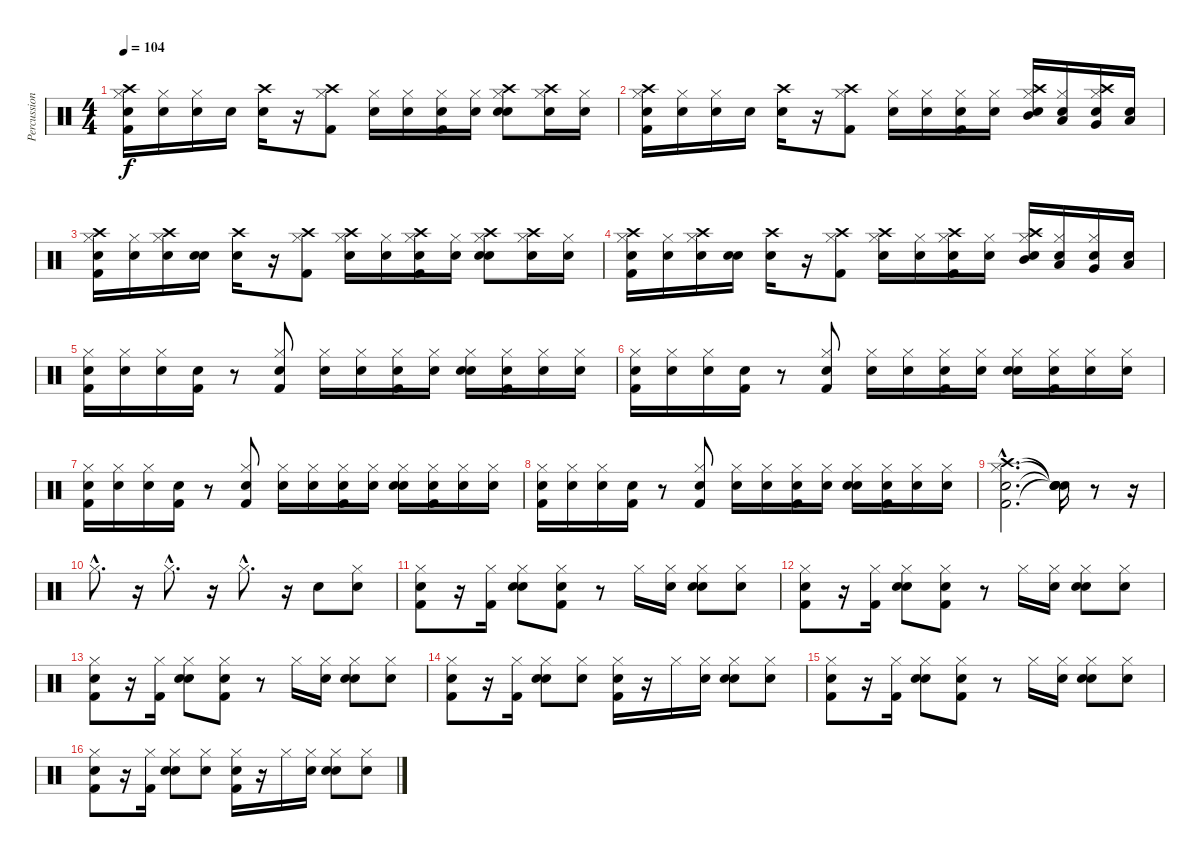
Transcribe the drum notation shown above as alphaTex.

\track ("Percussion" "Percussion") {instrument percussion}
\staff {score}
\articulation defaults
\ts (4 4)
\tempo 104
\clef neutral
\ks c
("Snare (hit)" "Kick (hit) 2" "Hi-Hat (closed)" "Crash high (hit)").16{dy f} ("Snare (hit)" "Hi-Hat (closed)").16 ("Snare (hit)" "Hi-Hat (closed)").16 "Electric Snare (hit)".16 ("Snare (hit)" "Crash high (hit)").16 r.16 ("Hi-Hat (closed)" "Kick (hit) 2" "Crash high (hit)").8 ("Snare (hit)" "Hi-Hat (closed)").16 ("Snare (hit)" "Hi-Hat (closed)").16 ("Snare (hit)" "Hi-Hat (closed)" "Kick (hit) 2").16 ("Snare (hit)" "Hi-Hat (closed)").16 ("Snare (hit)" "Hi-Hat (closed)" "Electric Snare (hit)" "Crash high (hit)").8 ("Snare (hit)" "Hi-Hat (closed)" "Crash high (hit)").16 ("Snare (hit)" "Hi-Hat (closed)").16 |
("Snare (hit)" "Hi-Hat (closed)" "Kick (hit) 2" "Crash high (hit)").16 ("Snare (hit)" "Hi-Hat (closed)").16 ("Snare (hit)" "Hi-Hat (closed)").16 "Electric Snare (hit)".16 ("Snare (hit)" "Crash high (hit)").16 r.16 ("Kick (hit) 2" "Hi-Hat (closed)" "Crash high (hit)").8 ("Snare (hit)" "Hi-Hat (closed)").16 ("Snare (hit)" "Hi-Hat (closed)").16 ("Snare (hit)" "Kick (hit) 2" "Hi-Hat (closed)").16 ("Snare (hit)" "Hi-Hat (closed)").16 ("Snare (hit)" "Mid Tom (hit)" "Hi-Hat (closed)" "Crash high (hit)").16 ("Snare (hit)" "Hi-Hat (closed)" "Low Tom (hit)").16 ("Snare (hit)" "Hi-Hat (closed)" "Very Low Tom (hit)" "Crash high (hit)").16 ("Snare (hit)" "Low Floor Tom (hit)").16 |
("Snare (hit)" "Hi-Hat (closed)" "Kick (hit) 2" "Crash high (hit)").16 ("Snare (hit)" "Hi-Hat (closed)").16 ("Snare (hit)" "Hi-Hat (closed)" "Crash high (hit)").16 ("Snare (hit)" "Electric Snare (hit)").16 ("Snare (hit)" "Crash high (hit)").16 r.16 ("Kick (hit) 2" "Hi-Hat (closed)" "Crash high (hit)").8 ("Snare (hit)" "Hi-Hat (closed)" "Crash high (hit)").16 ("Snare (hit)" "Hi-Hat (closed)").16 ("Snare (hit)" "Kick (hit) 2" "Hi-Hat (closed)" "Crash high (hit)").16 ("Snare (hit)" "Hi-Hat (closed)").16 ("Snare (hit)" "Electric Snare (hit)" "Hi-Hat (closed)" "Crash high (hit)").8 ("Snare (hit)" "Hi-Hat (closed)" "Crash high (hit)").16 ("Snare (hit)" "Hi-Hat (closed)").16 |
("Snare (hit)" "Hi-Hat (closed)" "Kick (hit) 2" "Crash high (hit)").16 ("Snare (hit)" "Hi-Hat (closed)").16 ("Snare (hit)" "Crash high (hit)" "Hi-Hat (closed)").16 ("Snare (hit)" "Electric Snare (hit)").16 ("Snare (hit)" "Crash high (hit)").16 r.16 ("Kick (hit) 2" "Hi-Hat (closed)" "Crash high (hit)").8 ("Snare (hit)" "Hi-Hat (closed)" "Crash high (hit)").16 ("Snare (hit)" "Hi-Hat (closed)").16 ("Snare (hit)" "Kick (hit) 2" "Hi-Hat (closed)" "Crash high (hit)").16 ("Snare (hit)" "Hi-Hat (closed)").16 ("Snare (hit)" "Crash high (hit)" "Hi-Hat (closed)" "Mid Tom (hit)").16 ("Snare (hit)" "Low Tom (hit)" "Hi-Hat (closed)").16 ("Snare (hit)" "Very Low Tom (hit)" "Hi-Hat (closed)").16 ("Snare (hit)" "Low Floor Tom (hit)").16 |
("Snare (hit)" "Hi-Hat (closed)" "Kick (hit) 2").16 ("Snare (hit)" "Hi-Hat (closed)").16 ("Snare (hit)" "Hi-Hat (closed)").16 ("Electric Snare (hit)" "Kick (hit) 2").16 r.8 ("Hi-Hat (closed)" "Kick (hit) 2" "Electric Snare (hit)").8 ("Snare (hit)" "Hi-Hat (closed)").16 ("Snare (hit)" "Hi-Hat (closed)").16 ("Snare (hit)" "Kick (hit) 2" "Hi-Hat (closed)").16 ("Snare (hit)" "Hi-Hat (closed)").16 ("Snare (hit)" "Hi-Hat (closed)" "Electric Snare (hit)").16 ("Snare (hit)" "Kick (hit) 2" "Hi-Hat (closed)").16 ("Snare (hit)" "Hi-Hat (closed)").16 ("Snare (hit)" "Hi-Hat (closed)").16 |
("Snare (hit)" "Kick (hit) 2" "Hi-Hat (closed)").16 ("Snare (hit)" "Hi-Hat (closed)").16 ("Snare (hit)" "Hi-Hat (closed)").16 ("Electric Snare (hit)" "Kick (hit) 2").16 r.8 ("Hi-Hat (closed)" "Electric Snare (hit)" "Kick (hit) 2").8 ("Snare (hit)" "Hi-Hat (closed)").16 ("Snare (hit)" "Hi-Hat (closed)").16 ("Snare (hit)" "Hi-Hat (closed)" "Kick (hit) 2").16 ("Snare (hit)" "Hi-Hat (closed)").16 ("Snare (hit)" "Hi-Hat (closed)" "Electric Snare (hit)").16 ("Snare (hit)" "Hi-Hat (closed)" "Kick (hit) 2").16 ("Snare (hit)" "Hi-Hat (closed)").16 ("Snare (hit)" "Hi-Hat (closed)").16 |
("Snare (hit)" "Kick (hit) 2" "Hi-Hat (closed)").16 ("Snare (hit)" "Hi-Hat (closed)").16 ("Snare (hit)" "Hi-Hat (closed)").16 ("Electric Snare (hit)" "Kick (hit) 2").16 r.8 ("Hi-Hat (closed)" "Electric Snare (hit)" "Kick (hit) 2").8 ("Snare (hit)" "Hi-Hat (closed)").16 ("Snare (hit)" "Hi-Hat (closed)").16 ("Snare (hit)" "Hi-Hat (closed)" "Kick (hit) 2").16 ("Snare (hit)" "Hi-Hat (closed)").16 ("Snare (hit)" "Hi-Hat (closed)" "Electric Snare (hit)").16 ("Snare (hit)" "Hi-Hat (closed)" "Kick (hit) 2").16 ("Snare (hit)" "Hi-Hat (closed)").16 ("Snare (hit)" "Hi-Hat (closed)").16 |
("Snare (hit)" "Kick (hit) 2" "Hi-Hat (closed)").16 ("Snare (hit)" "Hi-Hat (closed)").16 ("Snare (hit)" "Hi-Hat (closed)").16 ("Electric Snare (hit)" "Kick (hit) 2").16 r.8 ("Hi-Hat (closed)" "Electric Snare (hit)" "Kick (hit) 2").8 ("Snare (hit)" "Hi-Hat (closed)").16 ("Snare (hit)" "Hi-Hat (closed)").16 ("Snare (hit)" "Hi-Hat (closed)" "Kick (hit) 2").16 ("Snare (hit)" "Hi-Hat (closed)").16 ("Snare (hit)" "Hi-Hat (closed)" "Electric Snare (hit)").16 ("Snare (hit)" "Hi-Hat (closed)" "Kick (hit) 2").16 ("Snare (hit)" "Hi-Hat (closed)").16 ("Snare (hit)" "Hi-Hat (closed)").16 |
("Snare (hit)"{hac} "Hi-Hat (closed)"{hac} "Kick (hit) 2"{hac} "Crash high (hit)"{hac}).2{d} ("Snare (hit)"{t} "Snare (hit)"{t} "Snare (hit)"{t} "Snare (hit)"{t}).16 r.8 r.16 |
"Hi-Hat (closed)"{hac}.8{d} r.16 "Hi-Hat (closed)"{hac}.8{d} r.16 "Hi-Hat (closed)"{hac}.8{d} r.16 "Electric Snare (hit)".8 ("Snare (hit)" "Hi-Hat (closed)").8 |
("Snare (hit)" "Hi-Hat (closed)" "Kick (hit) 2").8 r.16 ("Kick (hit) 2" "Hi-Hat (closed)").16 ("Snare (hit)" "Electric Snare (hit)" "Hi-Hat (closed)").8 ("Snare (hit)" "Kick (hit) 2" "Hi-Hat (closed)").8 r.8 "Hi-Hat (closed)".16 ("Snare (hit)" "Hi-Hat (closed)").16 ("Snare (hit)" "Electric Snare (hit)" "Hi-Hat (closed)").8 ("Snare (hit)" "Hi-Hat (closed)").8 |
("Snare (hit)" "Hi-Hat (closed)" "Kick (hit) 2").8 r.16 ("Kick (hit) 2" "Hi-Hat (closed)").16 ("Snare (hit)" "Electric Snare (hit)" "Hi-Hat (closed)").8 ("Snare (hit)" "Kick (hit) 2" "Hi-Hat (closed)").8 r.8 "Hi-Hat (closed)".16 ("Snare (hit)" "Hi-Hat (closed)").16 ("Snare (hit)" "Electric Snare (hit)" "Hi-Hat (closed)").8 ("Snare (hit)" "Hi-Hat (closed)").8 |
("Snare (hit)" "Kick (hit) 2" "Hi-Hat (closed)").8 r.16 ("Hi-Hat (closed)" "Kick (hit) 2").16 ("Snare (hit)" "Hi-Hat (closed)" "Electric Snare (hit)").8 ("Snare (hit)" "Hi-Hat (closed)" "Kick (hit) 2").8 r.8 "Hi-Hat (closed)".16 ("Snare (hit)" "Hi-Hat (closed)").16 ("Snare (hit)" "Hi-Hat (closed)" "Electric Snare (hit)").8 ("Snare (hit)" "Hi-Hat (closed)").8 |
("Snare (hit)" "Hi-Hat (closed)" "Kick (hit) 2").8 r.16 ("Kick (hit) 2" "Hi-Hat (closed)").16 ("Snare (hit)" "Electric Snare (hit)" "Hi-Hat (closed)").8 ("Snare (hit)" "Hi-Hat (closed)").8 ("Snare (hit)" "Kick (hit) 2" "Hi-Hat (closed)").16 r.16 "Hi-Hat (closed)".16 ("Snare (hit)" "Hi-Hat (closed)").16 ("Snare (hit)" "Electric Snare (hit)" "Hi-Hat (closed)").8 ("Snare (hit)" "Hi-Hat (closed)").8 |
("Snare (hit)" "Kick (hit) 2" "Hi-Hat (closed)").8 r.16 ("Hi-Hat (closed)" "Kick (hit) 2").16 ("Snare (hit)" "Hi-Hat (closed)" "Electric Snare (hit)").8 ("Snare (hit)" "Hi-Hat (closed)" "Kick (hit) 2").8 r.8 "Hi-Hat (closed)".16 ("Snare (hit)" "Hi-Hat (closed)").16 ("Snare (hit)" "Hi-Hat (closed)" "Electric Snare (hit)").8 ("Snare (hit)" "Hi-Hat (closed)").8 |
("Snare (hit)" "Hi-Hat (closed)" "Kick (hit) 2").8 r.16 ("Kick (hit) 2" "Hi-Hat (closed)").16 ("Snare (hit)" "Electric Snare (hit)" "Hi-Hat (closed)").8 ("Snare (hit)" "Hi-Hat (closed)").8 ("Snare (hit)" "Kick (hit) 2" "Hi-Hat (closed)").16 r.16 "Hi-Hat (closed)".16 ("Snare (hit)" "Hi-Hat (closed)").16 ("Snare (hit)" "Electric Snare (hit)" "Hi-Hat (closed)").8 ("Snare (hit)" "Hi-Hat (closed)").8
